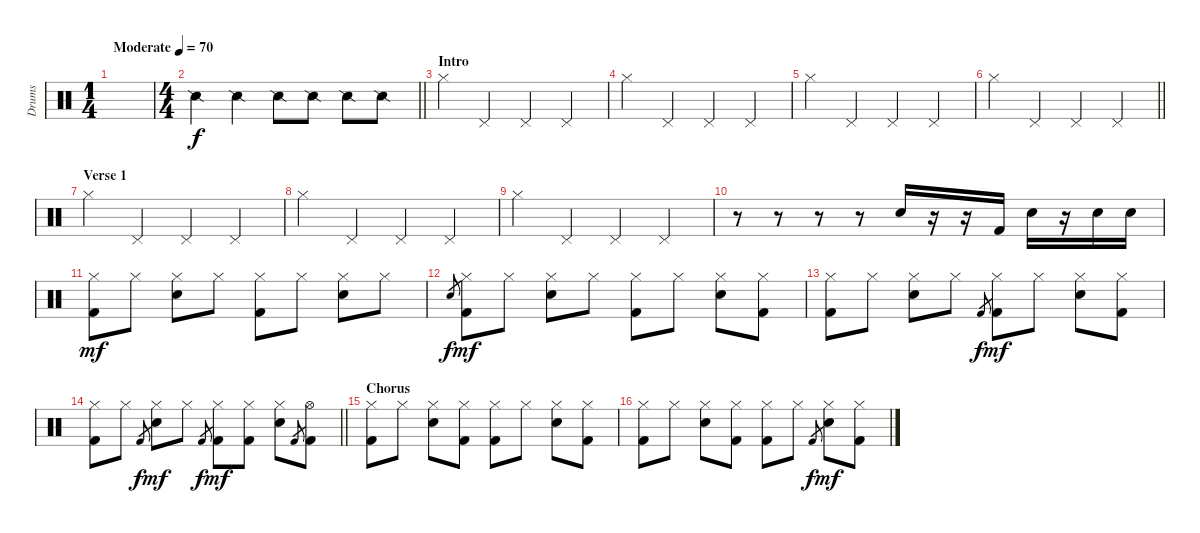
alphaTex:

\track ("Drums" "Drums") {instrument percussion}
\staff {score}
\articulation defaults
\ts (1 4)
\tempo (70 "Moderate")
\clef neutral
\ks c
|
\ts (4 4)
\barLineRight lightlight "Snare (side stick) 2".4 "Snare (side stick) 2".4 "Snare (side stick) 2".8 "Snare (side stick) 2".8 "Snare (side stick) 2".8 "Snare (side stick) 2".8
|
\section ("" "Intro")
"Hi-Hat (closed)".4 "Pedal Hi-Hat (hit)".4 "Pedal Hi-Hat (hit)".4 "Pedal Hi-Hat (hit)".4 |
"Hi-Hat (closed)".4 "Pedal Hi-Hat (hit)".4 "Pedal Hi-Hat (hit)".4 "Pedal Hi-Hat (hit)".4 |
"Hi-Hat (closed)".4 "Pedal Hi-Hat (hit)".4 "Pedal Hi-Hat (hit)".4 "Pedal Hi-Hat (hit)".4 |
\barLineRight lightlight "Hi-Hat (closed)".4 "Pedal Hi-Hat (hit)".4 "Pedal Hi-Hat (hit)".4 "Pedal Hi-Hat (hit)".4
|
\section ("" "Verse 1")
"Hi-Hat (closed)".4 "Pedal Hi-Hat (hit)".4 "Pedal Hi-Hat (hit)".4 "Pedal Hi-Hat (hit)".4 |
"Hi-Hat (closed)".4 "Pedal Hi-Hat (hit)".4 "Pedal Hi-Hat (hit)".4 "Pedal Hi-Hat (hit)".4 |
"Hi-Hat (closed)".4 "Pedal Hi-Hat (hit)".4 "Pedal Hi-Hat (hit)".4 "Pedal Hi-Hat (hit)".4 |
r.8 r.8 r.8 r.8 "Snare (hit) 2".16 r.16 r.16 "Kick (hit) 2".16 "Snare (hit) 2".16 r.16 "Snare (hit) 2".16 "Snare (hit) 2".16 |
("Hi-Hat (closed)" "Kick (hit) 2").8{dy mf} "Hi-Hat (closed)".8 ("Hi-Hat (closed)" "Snare (hit) 2").8 "Hi-Hat (closed)".8 ("Hi-Hat (closed)" "Kick (hit) 2").8 "Hi-Hat (closed)".8 ("Hi-Hat (closed)" "Snare (hit) 2").8 "Hi-Hat (closed)".8 |
"Snare (hit) 2".8{gr dy f} ("Hi-Hat (closed)" "Kick (hit) 2").8{dy mf} "Hi-Hat (closed)".8 ("Hi-Hat (closed)" "Snare (hit) 2").8 "Hi-Hat (closed)".8 ("Hi-Hat (closed)" "Kick (hit) 2").8 "Hi-Hat (closed)".8 ("Hi-Hat (closed)" "Snare (hit) 2").8 ("Hi-Hat (closed)" "Kick (hit) 2").8 |
("Hi-Hat (closed)" "Kick (hit) 2").8 "Hi-Hat (closed)".8 ("Hi-Hat (closed)" "Snare (hit) 2").8 "Hi-Hat (closed)".8 "Kick (hit) 2".8{gr dy f} ("Hi-Hat (closed)" "Kick (hit) 2").8{dy mf} "Hi-Hat (closed)".8 ("Hi-Hat (closed)" "Snare (hit) 2").8 ("Hi-Hat (closed)" "Kick (hit) 2").8 |
\barLineRight lightlight
("Hi-Hat (closed)" "Kick (hit) 2").8 "Hi-Hat (closed)".8 "Kick (hit) 2".8{gr dy f} ("Hi-Hat (closed)" "Snare (hit) 2").8{dy mf} "Hi-Hat (closed)".8 "Kick (hit) 2".8{gr dy f} ("Hi-Hat (closed)" "Kick (hit) 2").8{dy mf} ("Hi-Hat (closed)" "Kick (hit) 2").8 ("Hi-Hat (closed)" "Snare (hit) 2").8 "Kick (hit) 2".8{gr} ("Hi-Hat (open)" "Kick (hit) 2").8 |
\section ("" "Chorus")
("Hi-Hat (closed)" "Kick (hit) 2").8 "Hi-Hat (closed)".8 ("Hi-Hat (closed)" "Snare (hit) 2").8 ("Hi-Hat (closed)" "Kick (hit) 2").8 ("Hi-Hat (closed)" "Kick (hit) 2").8 "Hi-Hat (closed)".8 ("Hi-Hat (closed)" "Snare (hit) 2").8 ("Hi-Hat (closed)" "Kick (hit) 2").8 |
("Hi-Hat (closed)" "Kick (hit) 2").8 "Hi-Hat (closed)".8 ("Hi-Hat (closed)" "Snare (hit) 2").8 ("Hi-Hat (closed)" "Kick (hit) 2").8 ("Hi-Hat (closed)" "Kick (hit) 2").8 "Hi-Hat (closed)".8 "Kick (hit) 2".8{gr dy f} ("Hi-Hat (closed)" "Snare (hit) 2").8{dy mf} ("Hi-Hat (closed)" "Kick (hit) 2").8
